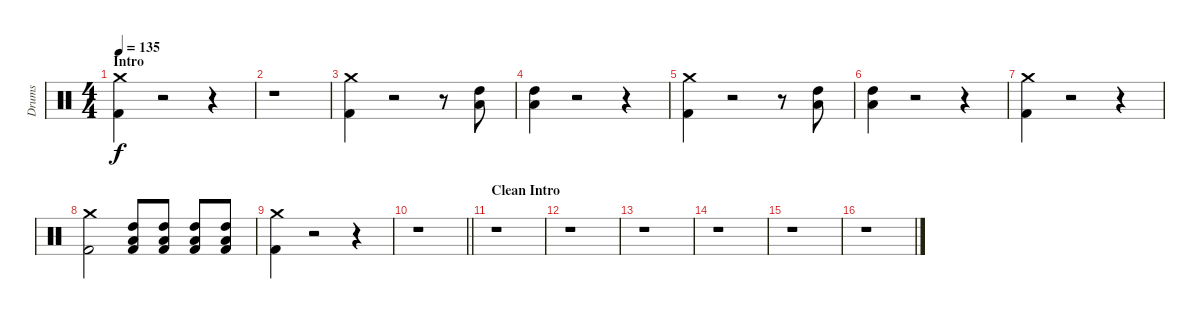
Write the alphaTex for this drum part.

\track ("Drums" "Drums") {instrument percussion}
\staff {score}
\articulation defaults
\ts (4 4)
\section ("" "Intro")
\tempo 135
\clef neutral
\ks c
("Crash medium (hit)" "Kick (hit) 2").4{dy f} r.2 r.4 |
r.1 |
("Crash medium (hit)" "Kick (hit) 2").4 r.2 r.8 ("High Tom (hit)" "Low Tom (hit)").8 |
("High Tom (hit)" "Low Tom (hit)").4 r.2 r.4 |
("Crash medium (hit)" "Kick (hit) 2").4 r.2 r.8 ("High Tom (hit)" "Low Tom (hit)").8 |
("High Tom (hit)" "Low Tom (hit)").4 r.2 r.4 |
("Crash medium (hit)" "Kick (hit) 2").4 r.2 r.4 |
("Crash medium (hit)" "Kick (hit) 2").2 ("High Tom (hit)" "Low Tom (hit)" "Kick (hit) 2").8 ("High Tom (hit)" "Low Tom (hit)" "Kick (hit) 2").8 ("High Tom (hit)" "Low Tom (hit)" "Kick (hit) 2").8 ("High Tom (hit)" "Low Tom (hit)" "Kick (hit) 2").8 |
("Crash medium (hit)" "Kick (hit) 2").4 r.2 r.4 |
\barLineRight lightlight
r.1 |
\section ("" "Clean Intro")
r.1 |
r.1 |
r.1 |
r.1 |
r.1 |
r.1
